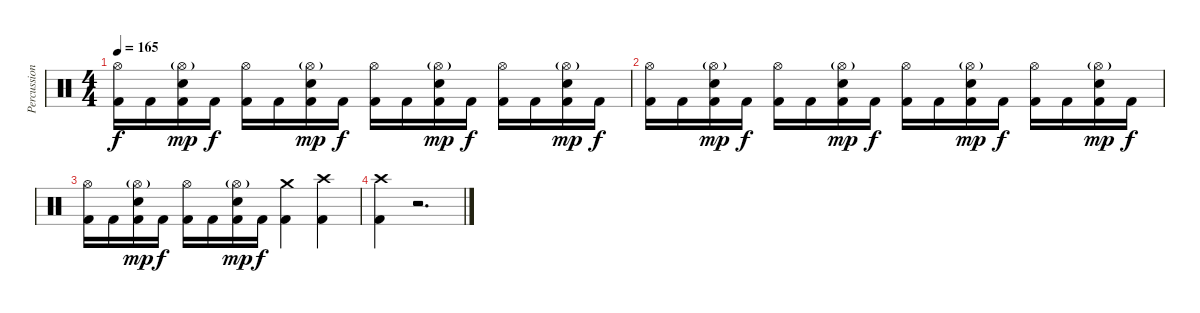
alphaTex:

\track ("Percussion" "Percussion") {instrument percussion}
\staff {score}
\articulation defaults
\ts (4 4)
\tempo 165
\clef neutral
\ks c
("Hi-Hat (open)" "Kick (hit) 2").16{dy f} "Kick (hit) 2".16 ("Hi-Hat (open)"{g} "Snare (hit) 2" "Kick (hit) 2").16{dy mp} "Kick (hit) 2".16{dy f} ("Hi-Hat (open)" "Kick (hit) 2").16 "Kick (hit) 2".16 ("Hi-Hat (open)"{g} "Snare (hit) 2" "Kick (hit) 2").16{dy mp} "Kick (hit) 2".16{dy f} ("Hi-Hat (open)" "Kick (hit) 2").16 "Kick (hit) 2".16 ("Hi-Hat (open)"{g} "Snare (hit) 2" "Kick (hit) 2").16{dy mp} "Kick (hit) 2".16{dy f} ("Hi-Hat (open)" "Kick (hit) 2").16 "Kick (hit) 2".16 ("Hi-Hat (open)"{g} "Snare (hit) 2" "Kick (hit) 2").16{dy mp} "Kick (hit) 2".16{dy f} |
("Hi-Hat (open)" "Kick (hit) 2").16 "Kick (hit) 2".16 ("Hi-Hat (open)"{g} "Snare (hit) 2" "Kick (hit) 2").16{dy mp} "Kick (hit) 2".16{dy f} ("Hi-Hat (open)" "Kick (hit) 2").16 "Kick (hit) 2".16 ("Hi-Hat (open)"{g} "Snare (hit) 2" "Kick (hit) 2").16{dy mp} "Kick (hit) 2".16{dy f} ("Hi-Hat (open)" "Kick (hit) 2").16 "Kick (hit) 2".16 ("Hi-Hat (open)"{g} "Snare (hit) 2" "Kick (hit) 2").16{dy mp} "Kick (hit) 2".16{dy f} ("Hi-Hat (open)" "Kick (hit) 2").16 "Kick (hit) 2".16 ("Hi-Hat (open)"{g} "Snare (hit) 2" "Kick (hit) 2").16{dy mp} "Kick (hit) 2".16{dy f} |
("Hi-Hat (open)" "Kick (hit) 2").16 "Kick (hit) 2".16 ("Hi-Hat (open)"{g} "Snare (hit) 2" "Kick (hit) 2").16{dy mp} "Kick (hit) 2".16{dy f} ("Hi-Hat (open)" "Kick (hit) 2").16 "Kick (hit) 2".16 ("Hi-Hat (open)"{g} "Snare (hit) 2" "Kick (hit) 2").16{dy mp} "Kick (hit) 2".16{dy f} ("Crash medium (hit)" "Kick (hit) 2").4 ("Crash high (hit)" "Kick (hit) 2").4 |
("Crash high (hit)" "Kick (hit) 2").4 r.2{d}
